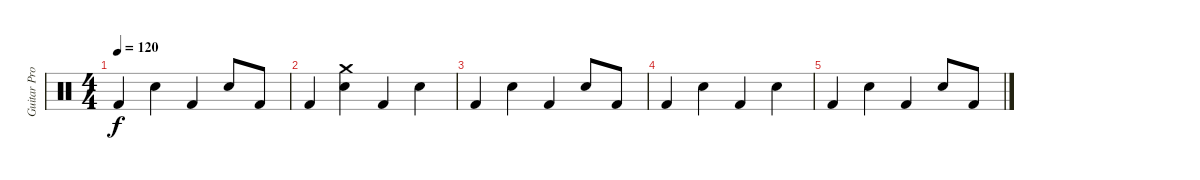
\track ("Guitar Pro" "Guitar Pro") {instrument percussion}
\staff {score}
\articulation defaults
\ts (4 4)
\tempo 120
\clef neutral
\ks c "Kick (hit) 2".4{dy f} "Snare (hit) 2".4 "Kick (hit) 2".4 "Snare (hit) 2".8 "Kick (hit) 2".8
|
"Kick (hit) 2".4 ("Snare (hit) 2" "Crash medium (hit)").4 "Kick (hit) 2".4 "Snare (hit) 2".4 |
"Kick (hit) 2".4 "Snare (hit) 2".4 "Kick (hit) 2".4 "Snare (hit) 2".8 "Kick (hit) 2".8 |
"Kick (hit) 2".4 "Snare (hit) 2".4 "Kick (hit) 2".4 "Snare (hit) 2".4 |
"Kick (hit) 2".4 "Snare (hit) 2".4 "Kick (hit) 2".4 "Snare (hit) 2".8 "Kick (hit) 2".8
